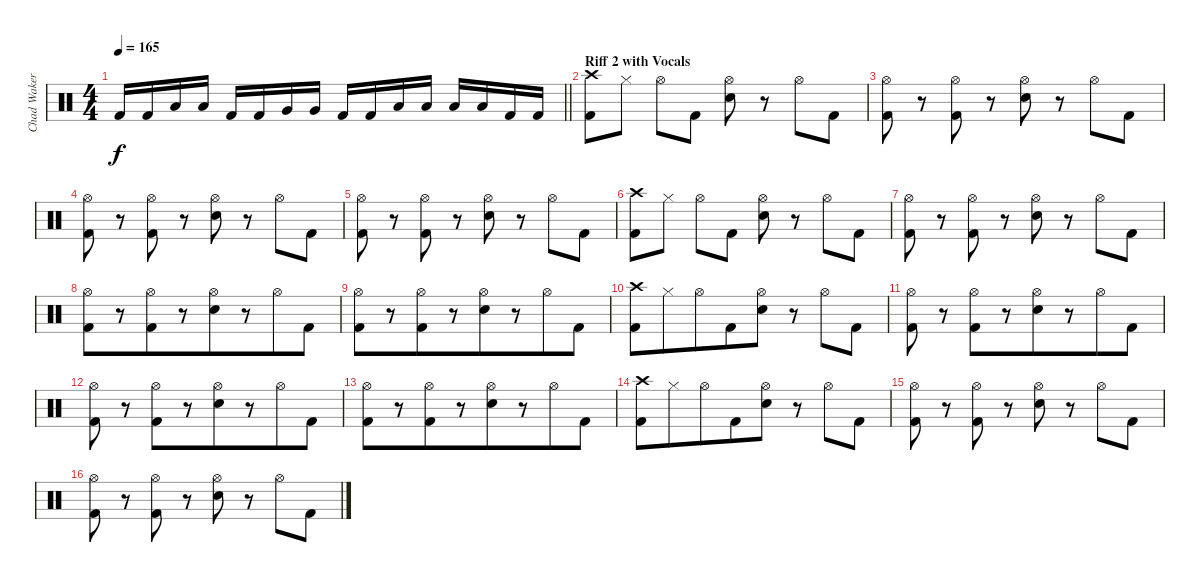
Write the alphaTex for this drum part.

\track ("Chad Wakerman - Percussion" "Chad Waker") {instrument percussion}
\staff {score}
\articulation defaults
\ts (4 4)
\tempo 165
\clef neutral
\barLineRight lightlight
\ks c "Kick (hit) 2".16{dy f} "Kick (hit) 2".16 "Low Tom (hit)".16 "Low Tom (hit)".16 "Kick (hit) 2".16 "Kick (hit) 2".16 "Very Low Tom (hit)".16 "Very Low Tom (hit)".16 "Kick (hit) 2".16 "Kick (hit) 2".16 "Low Floor Tom (hit)".16 "Low Floor Tom (hit)".16 "Low Floor Tom (hit)".16 "Low Floor Tom (hit)".16 "Kick (hit) 2".16 "Kick (hit) 2".16
|
\section ("" "Riff 2 with Vocals")
("Crash high (hit)" "Kick (hit) 2").8 "Hi-Hat (closed)".8 "Hi-Hat (open)".8 "Kick (hit) 2".8 ("Hi-Hat (open)" "Electric Snare (hit)").8 r.8 "Hi-Hat (open)".8 "Kick (hit) 2".8 |
("Hi-Hat (open)" "Kick (hit) 2").8 r.8 ("Hi-Hat (open)" "Kick (hit) 2").8 r.8 ("Hi-Hat (open)" "Electric Snare (hit)").8 r.8 "Hi-Hat (open)".8 "Kick (hit) 2".8 |
("Hi-Hat (open)" "Kick (hit) 2").8 r.8 ("Hi-Hat (open)" "Kick (hit) 2").8 r.8 ("Hi-Hat (open)" "Electric Snare (hit)").8 r.8 "Hi-Hat (open)".8 "Kick (hit) 2".8 |
("Hi-Hat (open)" "Kick (hit) 2").8 r.8 ("Hi-Hat (open)" "Kick (hit) 2").8 r.8 ("Hi-Hat (open)" "Electric Snare (hit)").8 r.8 "Hi-Hat (open)".8 "Kick (hit) 2".8 |
("Crash high (hit)" "Kick (hit) 2").8 "Hi-Hat (closed)".8 "Hi-Hat (open)".8 "Kick (hit) 2".8 ("Hi-Hat (open)" "Electric Snare (hit)").8 r.8 "Hi-Hat (open)".8 "Kick (hit) 2".8 |
("Hi-Hat (open)" "Kick (hit) 2").8 r.8 ("Hi-Hat (open)" "Kick (hit) 2").8 r.8 ("Hi-Hat (open)" "Electric Snare (hit)").8 r.8 "Hi-Hat (open)".8 "Kick (hit) 2".8 |
("Hi-Hat (open)" "Kick (hit) 2").8{beam merge} r.8{beam merge} ("Hi-Hat (open)" "Kick (hit) 2").8{beam merge} r.8{beam merge} ("Hi-Hat (open)" "Electric Snare (hit)").8{beam merge} r.8{beam merge} "Hi-Hat (open)".8 "Kick (hit) 2".8 |
("Hi-Hat (open)" "Kick (hit) 2").8{beam merge} r.8{beam merge} ("Hi-Hat (open)" "Kick (hit) 2").8{beam merge} r.8{beam merge} ("Hi-Hat (open)" "Electric Snare (hit)").8{beam merge} r.8{beam merge} "Hi-Hat (open)".8{beam merge} "Kick (hit) 2".8 |
("Crash high (hit)" "Kick (hit) 2").8 "Hi-Hat (closed)".8{beam merge} "Hi-Hat (open)".8{beam merge} "Kick (hit) 2".8{beam merge} ("Hi-Hat (open)" "Electric Snare (hit)").8 r.8{beam merge} "Hi-Hat (open)".8{beam merge} "Kick (hit) 2".8 |
("Hi-Hat (open)" "Kick (hit) 2").8 r.8{beam merge} ("Hi-Hat (open)" "Kick (hit) 2").8{beam merge} r.8 ("Hi-Hat (open)" "Electric Snare (hit)").8{beam merge} r.8 "Hi-Hat (open)".8{beam merge} "Kick (hit) 2".8 |
("Hi-Hat (open)" "Kick (hit) 2").8 r.8{beam merge} ("Hi-Hat (open)" "Kick (hit) 2").8{beam merge} r.8{beam merge} ("Hi-Hat (open)" "Electric Snare (hit)").8{beam merge} r.8{beam merge} "Hi-Hat (open)".8{beam merge} "Kick (hit) 2".8 |
("Hi-Hat (open)" "Kick (hit) 2").8{beam merge} r.8{beam merge} ("Hi-Hat (open)" "Kick (hit) 2").8{beam merge} r.8 ("Hi-Hat (open)" "Electric Snare (hit)").8{beam merge} r.8 "Hi-Hat (open)".8 "Kick (hit) 2".8 |
("Crash high (hit)" "Kick (hit) 2").8{beam merge} "Hi-Hat (closed)".8{beam merge} "Hi-Hat (open)".8{beam merge} "Kick (hit) 2".8{beam merge} ("Hi-Hat (open)" "Electric Snare (hit)").8 r.8{beam merge} "Hi-Hat (open)".8 "Kick (hit) 2".8 |
("Hi-Hat (open)" "Kick (hit) 2").8 r.8 ("Hi-Hat (open)" "Kick (hit) 2").8 r.8 ("Hi-Hat (open)" "Electric Snare (hit)").8 r.8 "Hi-Hat (open)".8 "Kick (hit) 2".8 |
("Hi-Hat (open)" "Kick (hit) 2").8 r.8 ("Hi-Hat (open)" "Kick (hit) 2").8 r.8 ("Hi-Hat (open)" "Electric Snare (hit)").8 r.8 "Hi-Hat (open)".8 "Kick (hit) 2".8
